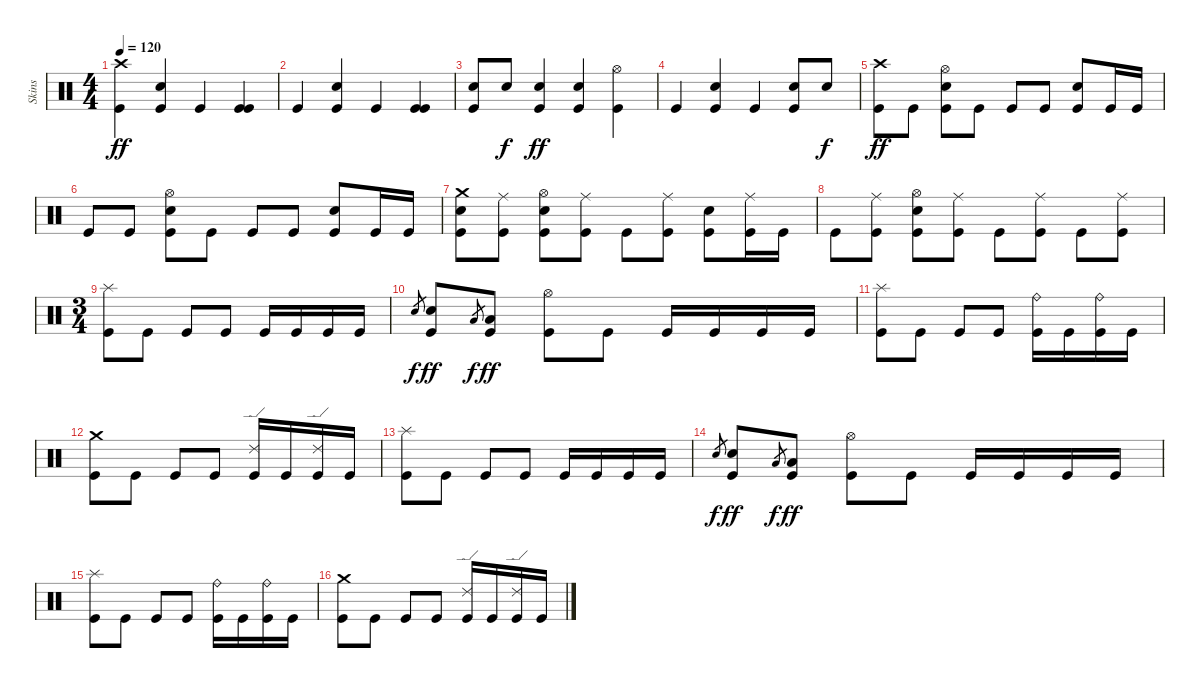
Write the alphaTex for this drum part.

\track ("Skins" "Skins") {instrument percussion}
\staff {score}
\articulation defaults
\ts (4 4)
\tempo 120
\clef neutral
\ks c
("Crash high (hit)" "Kick (hit)").4{dy ff} ("Electric Snare (hit)" "Kick (hit)").4 "Kick (hit)".4 ("Kick (hit)" "Kick (hit)").4 |
"Kick (hit)".4 ("Electric Snare (hit)" "Kick (hit)").4 "Kick (hit)".4 ("Kick (hit)" "Kick (hit)").4 |
("Snare (hit) 2" "Kick (hit)").8 "Snare (hit) 2".8{dy f} ("Electric Snare (hit)" "Kick (hit)").4{dy ff} ("Snare (hit) 2" "Kick (hit)").4 ("Hi-Hat (open)" "Kick (hit)").4 |
"Kick (hit)".4 ("Electric Snare (hit)" "Kick (hit)").4 "Kick (hit)".4 ("Electric Snare (hit)" "Kick (hit)").8 "Electric Snare (hit)".8{dy f} |
("Crash high (hit)" "Kick (hit)").8{dy ff} "Kick (hit)".8 ("Hi-Hat (open)" "Electric Snare (hit)" "Kick (hit)").8 "Kick (hit)".8 "Kick (hit)".8 "Kick (hit)".8 ("Snare (hit) 2" "Kick (hit)").8 "Kick (hit)".16 "Kick (hit)".16 |
"Kick (hit)".8 "Kick (hit)".8 ("Hi-Hat (open)" "Electric Snare (hit)" "Kick (hit)").8 "Kick (hit)".8 "Kick (hit)".8 "Kick (hit)".8 ("Snare (hit) 2" "Kick (hit)").8 "Kick (hit)".16 "Kick (hit)".16 |
("Crash medium (hit)" "Snare (hit) 2" "Kick (hit)").8 ("Ride (middle)" "Kick (hit)").8 ("Hi-Hat (open)" "Electric Snare (hit)" "Kick (hit)").8 ("Ride (middle)" "Kick (hit)").8 "Kick (hit)".8 ("Ride (middle)" "Kick (hit)").8 ("Snare (hit) 2" "Kick (hit)").8 ("Ride (middle)" "Kick (hit)").16 "Kick (hit)".16 |
"Kick (hit)".8 ("Ride (middle)" "Kick (hit)").8 ("Hi-Hat (open)" "Electric Snare (hit)" "Kick (hit)").8 ("Ride (middle)" "Kick (hit)").8 "Kick (hit)".8 ("Ride (middle)" "Kick (hit)").8 "Kick (hit)".8 ("Ride (middle)" "Kick (hit)").8 |
\ts (3 4)
("Splash (hit)" "Kick (hit)").8 "Kick (hit)".8 "Kick (hit)".8 "Kick (hit)".8 "Kick (hit)".16 "Kick (hit)".16 "Kick (hit)".16 "Kick (hit)".16 |
"Snare (hit) 2".8{gr dy f} ("Snare (hit) 2" "Kick (hit)").8{dy ff} "Low Tom (hit)".8{gr dy f} ("Low Tom (hit)" "Kick (hit)").8{dy ff} ("Hi-Hat (open)" "Kick (hit)").8 "Kick (hit)".8 "Kick (hit)".16 "Kick (hit)".16 "Kick (hit)".16 "Kick (hit)".16 |
("Splash (hit)" "Kick (hit)").8 "Kick (hit)".8 "Kick (hit)".8 "Kick (hit)".8 ("Ride (bell)" "Kick (hit)").16 "Kick (hit)".16 ("Ride (bell)" "Kick (hit)").16 "Kick (hit)".16 |
("Crash medium (hit)" "Kick (hit)").8 "Kick (hit)".8 "Kick (hit)".8 "Kick (hit)".8 ("Ride (edge) 2" "Kick (hit)").16 "Kick (hit)".16 ("Ride (edge) 2" "Kick (hit)").16 "Kick (hit)".16 |
("Splash (hit)" "Kick (hit)").8 "Kick (hit)".8 "Kick (hit)".8 "Kick (hit)".8 "Kick (hit)".16 "Kick (hit)".16 "Kick (hit)".16 "Kick (hit)".16 |
"Snare (hit) 2".8{gr dy f} ("Snare (hit) 2" "Kick (hit)").8{dy ff} "Low Tom (hit)".8{gr dy f} ("Low Tom (hit)" "Kick (hit)").8{dy ff} ("Hi-Hat (open)" "Kick (hit)").8 "Kick (hit)".8 "Kick (hit)".16 "Kick (hit)".16 "Kick (hit)".16 "Kick (hit)".16 |
("Splash (hit)" "Kick (hit)").8 "Kick (hit)".8 "Kick (hit)".8 "Kick (hit)".8 ("Ride (bell)" "Kick (hit)").16 "Kick (hit)".16 ("Ride (bell)" "Kick (hit)").16 "Kick (hit)".16 |
("Crash medium (hit)" "Kick (hit)").8 "Kick (hit)".8 "Kick (hit)".8 "Kick (hit)".8 ("Ride (edge) 2" "Kick (hit)").16 "Kick (hit)".16 ("Ride (edge) 2" "Kick (hit)").16 "Kick (hit)".16
